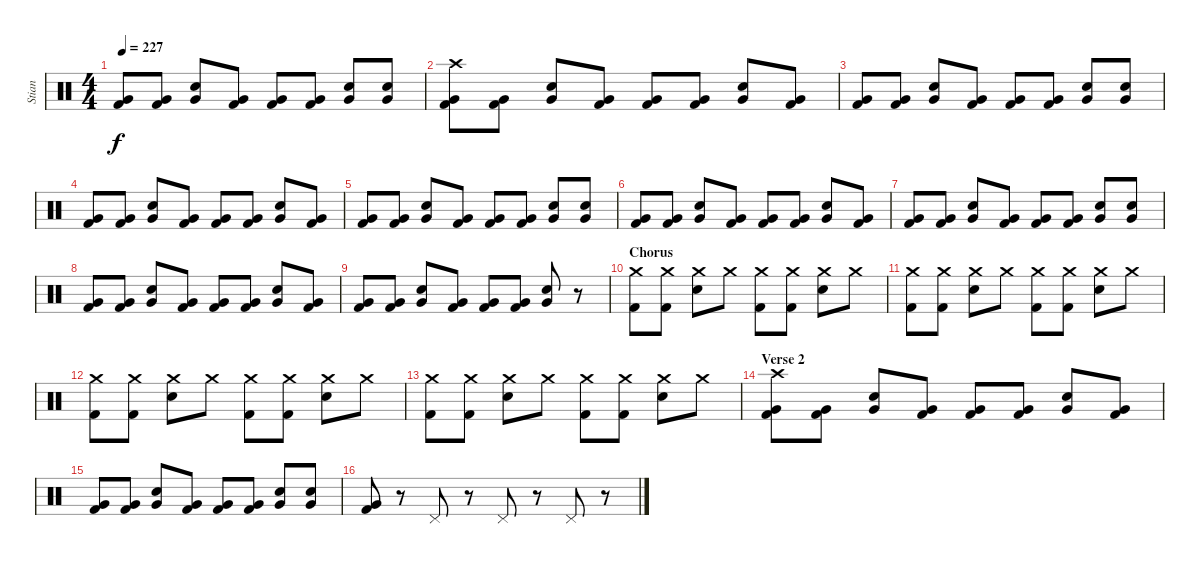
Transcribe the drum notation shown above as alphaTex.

\track ("Stian" "Stian") {instrument percussion}
\staff {score}
\articulation defaults
\ts (4 4)
\tempo 227
\clef neutral
\ks c
("Very Low Tom (hit)" "Kick (hit) 2").8{dy f} ("Very Low Tom (hit)" "Kick (hit) 2").8 ("Very Low Tom (hit)" "Electric Snare (hit)").8 ("Very Low Tom (hit)" "Kick (hit) 2").8 ("Very Low Tom (hit)" "Kick (hit) 2").8 ("Very Low Tom (hit)" "Kick (hit) 2").8 ("Very Low Tom (hit)" "Electric Snare (hit)").8 ("Very Low Tom (hit)" "Electric Snare (hit)").8 |
("Very Low Tom (hit)" "Crash high (hit)" "Kick (hit) 2").8 ("Very Low Tom (hit)" "Kick (hit) 2").8 ("Very Low Tom (hit)" "Electric Snare (hit)").8 ("Very Low Tom (hit)" "Kick (hit) 2").8 ("Very Low Tom (hit)" "Kick (hit) 2").8 ("Very Low Tom (hit)" "Kick (hit) 2").8 ("Very Low Tom (hit)" "Electric Snare (hit)").8 ("Very Low Tom (hit)" "Kick (hit) 2").8 |
("Very Low Tom (hit)" "Kick (hit) 2").8 ("Very Low Tom (hit)" "Kick (hit) 2").8 ("Very Low Tom (hit)" "Electric Snare (hit)").8 ("Very Low Tom (hit)" "Kick (hit) 2").8 ("Very Low Tom (hit)" "Kick (hit) 2").8 ("Very Low Tom (hit)" "Kick (hit) 2").8 ("Very Low Tom (hit)" "Electric Snare (hit)").8 ("Very Low Tom (hit)" "Electric Snare (hit)").8 |
("Very Low Tom (hit)" "Kick (hit) 2").8 ("Very Low Tom (hit)" "Kick (hit) 2").8 ("Very Low Tom (hit)" "Electric Snare (hit)").8 ("Very Low Tom (hit)" "Kick (hit) 2").8 ("Very Low Tom (hit)" "Kick (hit) 2").8 ("Very Low Tom (hit)" "Kick (hit) 2").8 ("Very Low Tom (hit)" "Electric Snare (hit)").8 ("Very Low Tom (hit)" "Kick (hit) 2").8 |
("Very Low Tom (hit)" "Kick (hit) 2").8 ("Very Low Tom (hit)" "Kick (hit) 2").8 ("Very Low Tom (hit)" "Electric Snare (hit)").8 ("Very Low Tom (hit)" "Kick (hit) 2").8 ("Very Low Tom (hit)" "Kick (hit) 2").8 ("Very Low Tom (hit)" "Kick (hit) 2").8 ("Very Low Tom (hit)" "Electric Snare (hit)").8 ("Very Low Tom (hit)" "Electric Snare (hit)").8 |
("Very Low Tom (hit)" "Kick (hit) 2").8 ("Very Low Tom (hit)" "Kick (hit) 2").8 ("Very Low Tom (hit)" "Electric Snare (hit)").8 ("Very Low Tom (hit)" "Kick (hit) 2").8 ("Very Low Tom (hit)" "Kick (hit) 2").8 ("Very Low Tom (hit)" "Kick (hit) 2").8 ("Very Low Tom (hit)" "Electric Snare (hit)").8 ("Very Low Tom (hit)" "Kick (hit) 2").8 |
("Very Low Tom (hit)" "Kick (hit) 2").8 ("Very Low Tom (hit)" "Kick (hit) 2").8 ("Very Low Tom (hit)" "Electric Snare (hit)").8 ("Very Low Tom (hit)" "Kick (hit) 2").8 ("Very Low Tom (hit)" "Kick (hit) 2").8 ("Very Low Tom (hit)" "Kick (hit) 2").8 ("Very Low Tom (hit)" "Electric Snare (hit)").8 ("Very Low Tom (hit)" "Electric Snare (hit)").8 |
("Very Low Tom (hit)" "Kick (hit) 2").8 ("Very Low Tom (hit)" "Kick (hit) 2").8 ("Very Low Tom (hit)" "Electric Snare (hit)").8 ("Very Low Tom (hit)" "Kick (hit) 2").8 ("Very Low Tom (hit)" "Kick (hit) 2").8 ("Very Low Tom (hit)" "Kick (hit) 2").8 ("Very Low Tom (hit)" "Electric Snare (hit)").8 ("Very Low Tom (hit)" "Kick (hit) 2").8 |
("Very Low Tom (hit)" "Kick (hit) 2").8 ("Very Low Tom (hit)" "Kick (hit) 2").8 ("Very Low Tom (hit)" "Electric Snare (hit)").8 ("Very Low Tom (hit)" "Kick (hit) 2").8 ("Very Low Tom (hit)" "Kick (hit) 2").8 ("Very Low Tom (hit)" "Kick (hit) 2").8 ("Very Low Tom (hit)" "Electric Snare (hit)").8 r.8 |
\section ("" "Chorus")
("Crash medium (hit)" "Kick (hit) 2").8 ("Crash medium (hit)" "Kick (hit) 2").8 ("Crash medium (hit)" "Electric Snare (hit)").8 "Crash medium (hit)".8 ("Crash medium (hit)" "Kick (hit) 2").8 ("Crash medium (hit)" "Kick (hit) 2").8 ("Crash medium (hit)" "Electric Snare (hit)").8 "Crash medium (hit)".8 |
("Crash medium (hit)" "Kick (hit) 2").8 ("Crash medium (hit)" "Kick (hit) 2").8 ("Crash medium (hit)" "Electric Snare (hit)").8 "Crash medium (hit)".8 ("Crash medium (hit)" "Kick (hit) 2").8 ("Crash medium (hit)" "Kick (hit) 2").8 ("Crash medium (hit)" "Electric Snare (hit)").8 "Crash medium (hit)".8 |
("Crash medium (hit)" "Kick (hit) 2").8 ("Crash medium (hit)" "Kick (hit) 2").8 ("Crash medium (hit)" "Electric Snare (hit)").8 "Crash medium (hit)".8 ("Crash medium (hit)" "Kick (hit) 2").8 ("Crash medium (hit)" "Kick (hit) 2").8 ("Crash medium (hit)" "Electric Snare (hit)").8 "Crash medium (hit)".8 |
("Crash medium (hit)" "Kick (hit) 2").8 ("Crash medium (hit)" "Kick (hit) 2").8 ("Crash medium (hit)" "Electric Snare (hit)").8 "Crash medium (hit)".8 ("Crash medium (hit)" "Kick (hit) 2").8 ("Crash medium (hit)" "Kick (hit) 2").8 ("Crash medium (hit)" "Electric Snare (hit)").8 "Crash medium (hit)".8 |
\section ("" "Verse 2")
("Very Low Tom (hit)" "Crash high (hit)" "Kick (hit) 2").8 ("Very Low Tom (hit)" "Kick (hit) 2").8 ("Very Low Tom (hit)" "Electric Snare (hit)").8 ("Very Low Tom (hit)" "Kick (hit) 2").8 ("Very Low Tom (hit)" "Kick (hit) 2").8 ("Very Low Tom (hit)" "Kick (hit) 2").8 ("Very Low Tom (hit)" "Electric Snare (hit)").8 ("Very Low Tom (hit)" "Kick (hit) 2").8 |
("Very Low Tom (hit)" "Kick (hit) 2").8 ("Very Low Tom (hit)" "Kick (hit) 2").8 ("Very Low Tom (hit)" "Electric Snare (hit)").8 ("Very Low Tom (hit)" "Kick (hit) 2").8 ("Very Low Tom (hit)" "Kick (hit) 2").8 ("Very Low Tom (hit)" "Kick (hit) 2").8 ("Very Low Tom (hit)" "Electric Snare (hit)").8 ("Very Low Tom (hit)" "Electric Snare (hit)").8 |
("Very Low Tom (hit)" "Kick (hit) 2").8 r.8 "Pedal Hi-Hat (hit)".8 r.8 "Pedal Hi-Hat (hit)".8 r.8 "Pedal Hi-Hat (hit)".8 r.8
